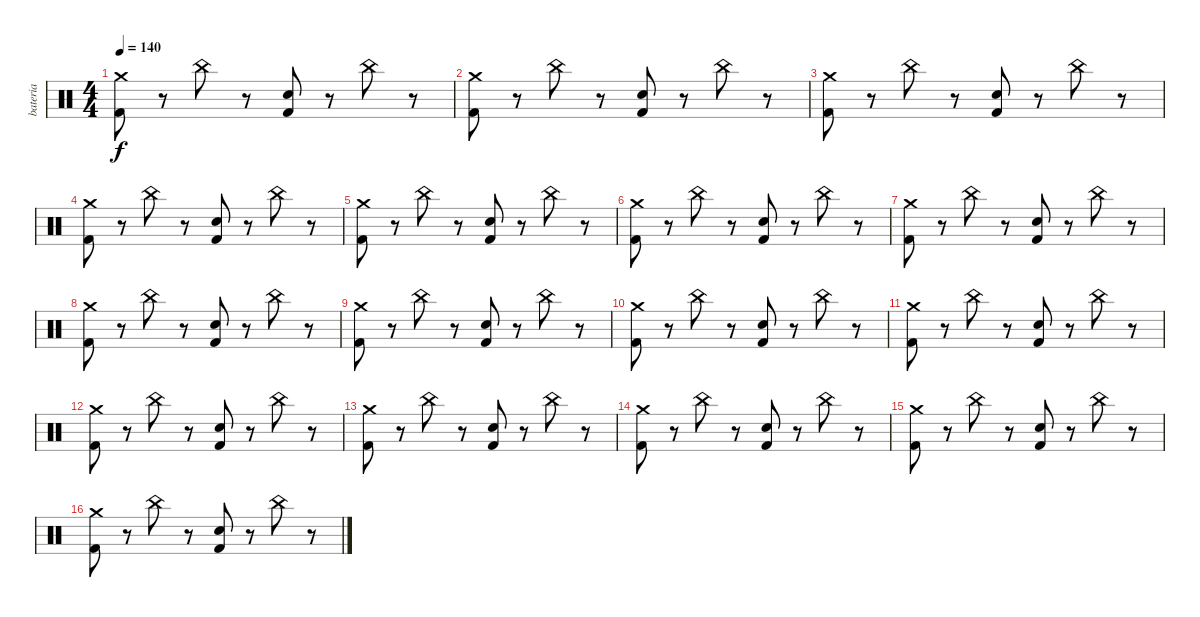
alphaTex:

\track ("bateria" "bateria") {mute instrument percussion}
\staff {score}
\articulation defaults
\ts (4 4)
\tempo 140
\clef neutral
\ks c
("Kick (hit) 2" "Crash medium (hit)").8{dy f} r.8 "China (hit)".8 r.8 ("Kick (hit) 2" "Electric Snare (hit)").8 r.8 "China (hit)".8 r.8 |
("Kick (hit) 2" "Crash medium (hit)").8 r.8 "China (hit)".8 r.8 ("Kick (hit) 2" "Electric Snare (hit)").8 r.8 "China (hit)".8 r.8 |
("Kick (hit) 2" "Crash medium (hit)").8 r.8 "China (hit)".8 r.8 ("Kick (hit) 2" "Electric Snare (hit)").8 r.8 "China (hit)".8 r.8 |
("Kick (hit) 2" "Crash medium (hit)").8 r.8 "China (hit)".8 r.8 ("Kick (hit) 2" "Electric Snare (hit)").8 r.8 "China (hit)".8 r.8 |
("Kick (hit) 2" "Crash medium (hit)").8 r.8 "China (hit)".8 r.8 ("Kick (hit) 2" "Electric Snare (hit)").8 r.8 "China (hit)".8 r.8 |
("Kick (hit) 2" "Crash medium (hit)").8 r.8 "China (hit)".8 r.8 ("Kick (hit) 2" "Electric Snare (hit)").8 r.8 "China (hit)".8 r.8 |
("Kick (hit) 2" "Crash medium (hit)").8 r.8 "China (hit)".8 r.8 ("Kick (hit) 2" "Electric Snare (hit)").8 r.8 "China (hit)".8 r.8 |
("Kick (hit) 2" "Crash medium (hit)").8 r.8 "China (hit)".8 r.8 ("Kick (hit) 2" "Electric Snare (hit)").8 r.8 "China (hit)".8 r.8 |
("Kick (hit) 2" "Crash medium (hit)").8 r.8 "China (hit)".8 r.8 ("Kick (hit) 2" "Electric Snare (hit)").8 r.8 "China (hit)".8 r.8 |
("Kick (hit) 2" "Crash medium (hit)").8 r.8 "China (hit)".8 r.8 ("Kick (hit) 2" "Electric Snare (hit)").8 r.8 "China (hit)".8 r.8 |
("Kick (hit) 2" "Crash medium (hit)").8 r.8 "China (hit)".8 r.8 ("Kick (hit) 2" "Electric Snare (hit)").8 r.8 "China (hit)".8 r.8 |
("Kick (hit) 2" "Crash medium (hit)").8 r.8 "China (hit)".8 r.8 ("Kick (hit) 2" "Electric Snare (hit)").8 r.8 "China (hit)".8 r.8 |
("Kick (hit) 2" "Crash medium (hit)").8 r.8 "China (hit)".8 r.8 ("Kick (hit) 2" "Electric Snare (hit)").8 r.8 "China (hit)".8 r.8 |
("Kick (hit) 2" "Crash medium (hit)").8 r.8 "China (hit)".8 r.8 ("Kick (hit) 2" "Electric Snare (hit)").8 r.8 "China (hit)".8 r.8 |
("Kick (hit) 2" "Crash medium (hit)").8 r.8 "China (hit)".8 r.8 ("Kick (hit) 2" "Electric Snare (hit)").8 r.8 "China (hit)".8 r.8 |
("Kick (hit) 2" "Crash medium (hit)").8 r.8 "China (hit)".8 r.8 ("Kick (hit) 2" "Electric Snare (hit)").8 r.8 "China (hit)".8 r.8
